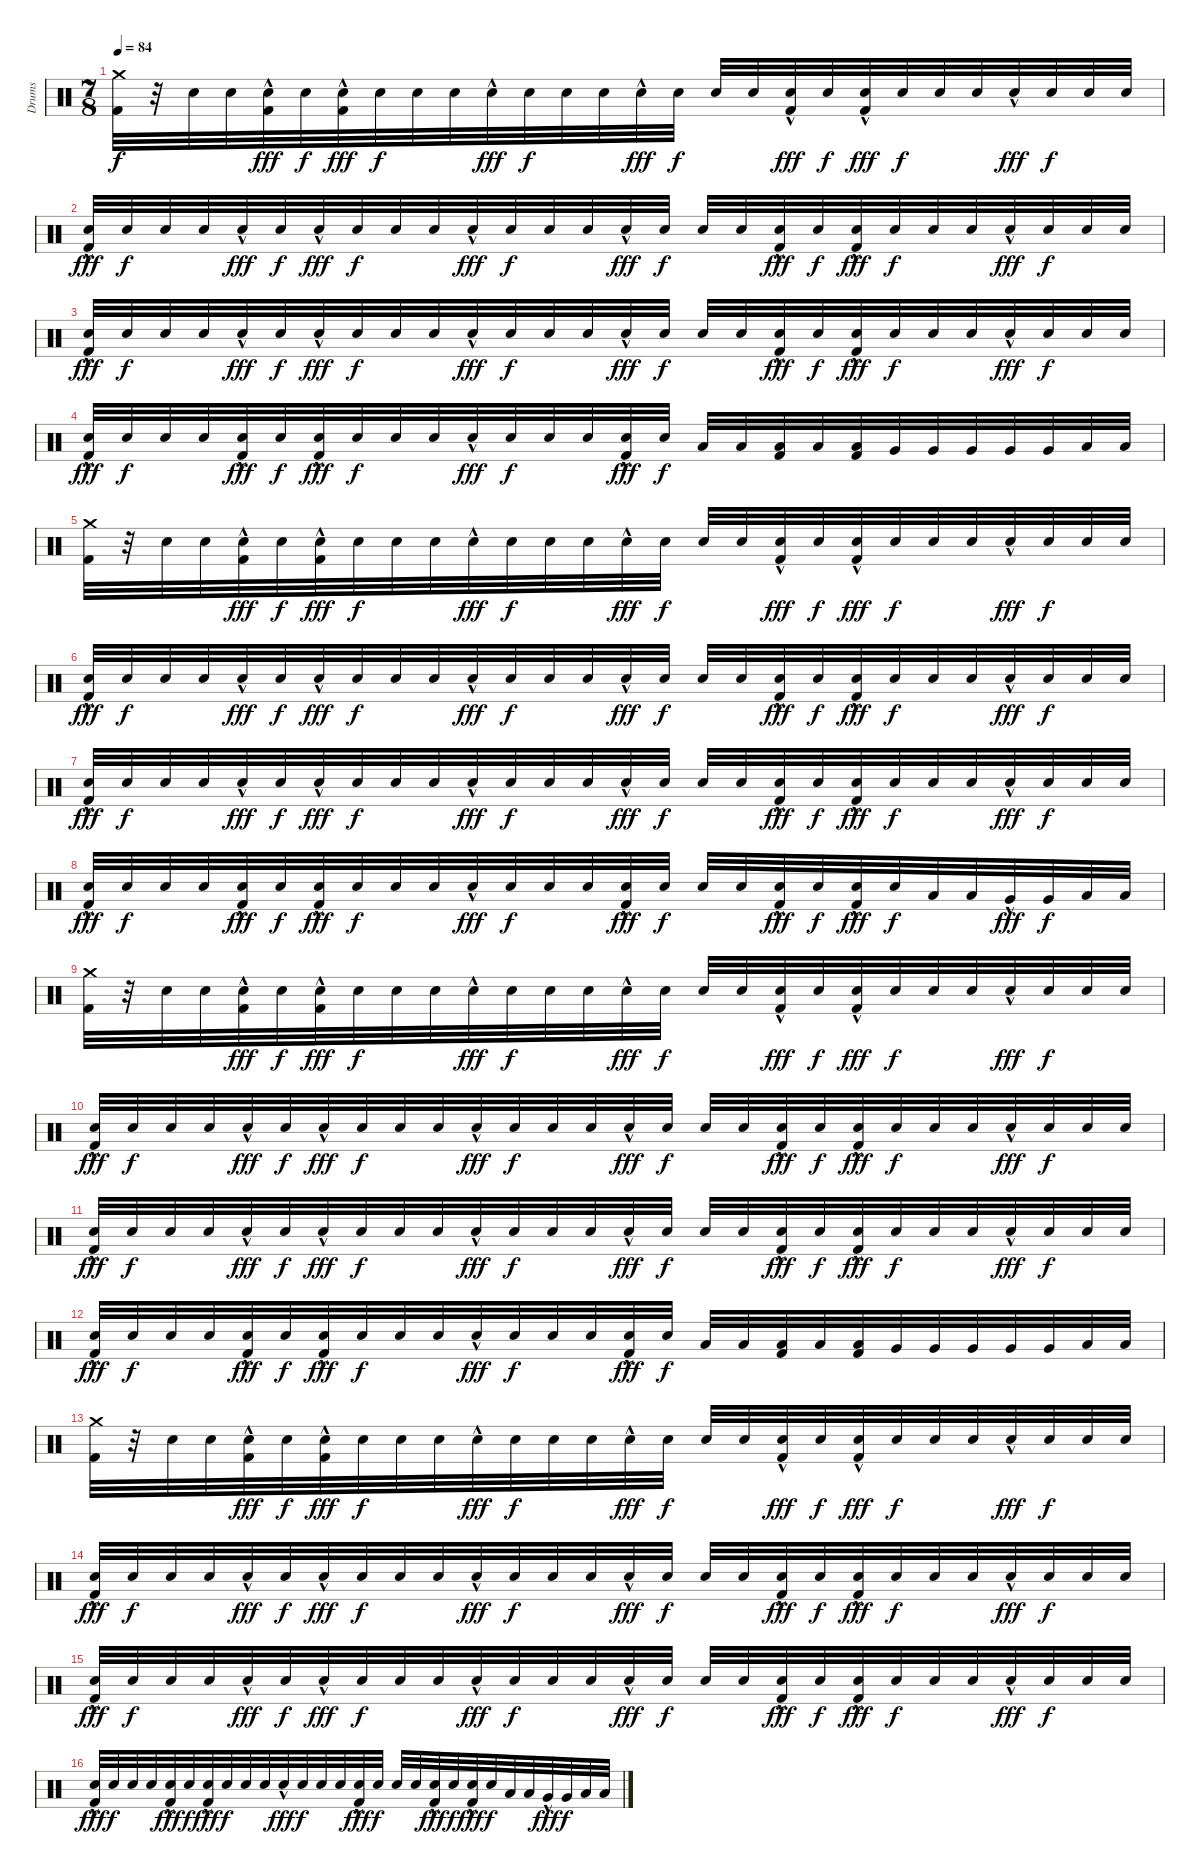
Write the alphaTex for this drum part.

\track ("Drums" "Drums") {instrument percussion}
\staff {score}
\articulation defaults
\ts (7 8)
\tempo 84
\clef neutral
\ks c
("Crash medium (hit)" "Kick (hit) 2").32{dy f} r.32 "Electric Snare (hit)".32 "Electric Snare (hit)".32 ("Electric Snare (hit)"{hac} "Kick (hit) 2").32{dy fff} "Electric Snare (hit)".32{dy f} ("Electric Snare (hit)"{hac} "Kick (hit) 2").32{dy fff} "Electric Snare (hit)".32{dy f} "Electric Snare (hit)".32 "Electric Snare (hit)".32 "Electric Snare (hit)"{hac}.32{dy fff} "Electric Snare (hit)".32{dy f} "Electric Snare (hit)".32 "Electric Snare (hit)".32 "Electric Snare (hit)"{hac}.32{dy fff} "Electric Snare (hit)".32{dy f} "Electric Snare (hit)".32 "Electric Snare (hit)".32 ("Electric Snare (hit)"{hac} "Kick (hit) 2").32{dy fff} "Electric Snare (hit)".32{dy f} ("Electric Snare (hit)"{hac} "Kick (hit) 2").32{dy fff} "Electric Snare (hit)".32{dy f} "Electric Snare (hit)".32 "Electric Snare (hit)".32 "Electric Snare (hit)"{hac}.32{dy fff} "Electric Snare (hit)".32{dy f} "Electric Snare (hit)".32 "Electric Snare (hit)".32 |
("Electric Snare (hit)"{hac} "Kick (hit) 2").32{dy fff} "Electric Snare (hit)".32{dy f} "Electric Snare (hit)".32 "Electric Snare (hit)".32 "Electric Snare (hit)"{hac}.32{dy fff} "Electric Snare (hit)".32{dy f} "Electric Snare (hit)"{hac}.32{dy fff} "Electric Snare (hit)".32{dy f} "Electric Snare (hit)".32 "Electric Snare (hit)".32 "Electric Snare (hit)"{hac}.32{dy fff} "Electric Snare (hit)".32{dy f} "Electric Snare (hit)".32 "Electric Snare (hit)".32 "Electric Snare (hit)"{hac}.32{dy fff} "Electric Snare (hit)".32{dy f} "Electric Snare (hit)".32 "Electric Snare (hit)".32 ("Electric Snare (hit)"{hac} "Kick (hit) 2").32{dy fff} "Electric Snare (hit)".32{dy f} ("Electric Snare (hit)"{hac} "Kick (hit) 2").32{dy fff} "Electric Snare (hit)".32{dy f} "Electric Snare (hit)".32 "Electric Snare (hit)".32 "Electric Snare (hit)"{hac}.32{dy fff} "Electric Snare (hit)".32{dy f} "Electric Snare (hit)".32 "Electric Snare (hit)".32 |
("Electric Snare (hit)"{hac} "Kick (hit) 2").32{dy fff} "Electric Snare (hit)".32{dy f} "Electric Snare (hit)".32 "Electric Snare (hit)".32 "Electric Snare (hit)"{hac}.32{dy fff} "Electric Snare (hit)".32{dy f} "Electric Snare (hit)"{hac}.32{dy fff} "Electric Snare (hit)".32{dy f} "Electric Snare (hit)".32 "Electric Snare (hit)".32 "Electric Snare (hit)"{hac}.32{dy fff} "Electric Snare (hit)".32{dy f} "Electric Snare (hit)".32 "Electric Snare (hit)".32 "Electric Snare (hit)"{hac}.32{dy fff} "Electric Snare (hit)".32{dy f} "Electric Snare (hit)".32 "Electric Snare (hit)".32 ("Electric Snare (hit)"{hac} "Kick (hit) 2").32{dy fff} "Electric Snare (hit)".32{dy f} ("Electric Snare (hit)"{hac} "Kick (hit) 2").32{dy fff} "Electric Snare (hit)".32{dy f} "Electric Snare (hit)".32 "Electric Snare (hit)".32 "Electric Snare (hit)"{hac}.32{dy fff} "Electric Snare (hit)".32{dy f} "Electric Snare (hit)".32 "Electric Snare (hit)".32 |
("Electric Snare (hit)"{hac} "Kick (hit) 2").32{dy fff} "Electric Snare (hit)".32{dy f} "Electric Snare (hit)".32 "Electric Snare (hit)".32 ("Electric Snare (hit)"{hac} "Kick (hit) 2").32{dy fff} "Electric Snare (hit)".32{dy f} ("Electric Snare (hit)"{hac} "Kick (hit) 2").32{dy fff} "Electric Snare (hit)".32{dy f} "Electric Snare (hit)".32 "Electric Snare (hit)".32 "Electric Snare (hit)"{hac}.32{dy fff} "Electric Snare (hit)".32{dy f} "Electric Snare (hit)".32 "Electric Snare (hit)".32 ("Electric Snare (hit)"{hac} "Kick (hit) 2").32{dy fff} "Electric Snare (hit)".32{dy f} "Low Tom (hit)".32 "Low Tom (hit)".32 ("Low Tom (hit)" "Kick (hit) 2").32 "Low Tom (hit)".32 ("Low Tom (hit)" "Kick (hit) 2").32 "Very Low Tom (hit)".32 "Very Low Tom (hit)".32 "Very Low Tom (hit)".32 "Very Low Tom (hit)".32 "Very Low Tom (hit)".32 "Low Floor Tom (hit)".32 "Low Floor Tom (hit)".32 |
("Crash medium (hit)" "Kick (hit) 2").32 r.32 "Electric Snare (hit)".32 "Electric Snare (hit)".32 ("Electric Snare (hit)"{hac} "Kick (hit) 2").32{dy fff} "Electric Snare (hit)".32{dy f} ("Electric Snare (hit)"{hac} "Kick (hit) 2").32{dy fff} "Electric Snare (hit)".32{dy f} "Electric Snare (hit)".32 "Electric Snare (hit)".32 "Electric Snare (hit)"{hac}.32{dy fff} "Electric Snare (hit)".32{dy f} "Electric Snare (hit)".32 "Electric Snare (hit)".32 "Electric Snare (hit)"{hac}.32{dy fff} "Electric Snare (hit)".32{dy f} "Electric Snare (hit)".32 "Electric Snare (hit)".32 ("Electric Snare (hit)"{hac} "Kick (hit) 2").32{dy fff} "Electric Snare (hit)".32{dy f} ("Electric Snare (hit)"{hac} "Kick (hit) 2").32{dy fff} "Electric Snare (hit)".32{dy f} "Electric Snare (hit)".32 "Electric Snare (hit)".32 "Electric Snare (hit)"{hac}.32{dy fff} "Electric Snare (hit)".32{dy f} "Electric Snare (hit)".32 "Electric Snare (hit)".32 |
("Electric Snare (hit)"{hac} "Kick (hit) 2").32{dy fff} "Electric Snare (hit)".32{dy f} "Electric Snare (hit)".32 "Electric Snare (hit)".32 "Electric Snare (hit)"{hac}.32{dy fff} "Electric Snare (hit)".32{dy f} "Electric Snare (hit)"{hac}.32{dy fff} "Electric Snare (hit)".32{dy f} "Electric Snare (hit)".32 "Electric Snare (hit)".32 "Electric Snare (hit)"{hac}.32{dy fff} "Electric Snare (hit)".32{dy f} "Electric Snare (hit)".32 "Electric Snare (hit)".32 "Electric Snare (hit)"{hac}.32{dy fff} "Electric Snare (hit)".32{dy f} "Electric Snare (hit)".32 "Electric Snare (hit)".32 ("Electric Snare (hit)"{hac} "Kick (hit) 2").32{dy fff} "Electric Snare (hit)".32{dy f} ("Electric Snare (hit)"{hac} "Kick (hit) 2").32{dy fff} "Electric Snare (hit)".32{dy f} "Electric Snare (hit)".32 "Electric Snare (hit)".32 "Electric Snare (hit)"{hac}.32{dy fff} "Electric Snare (hit)".32{dy f} "Electric Snare (hit)".32 "Electric Snare (hit)".32 |
("Electric Snare (hit)"{hac} "Kick (hit) 2").32{dy fff} "Electric Snare (hit)".32{dy f} "Electric Snare (hit)".32 "Electric Snare (hit)".32 "Electric Snare (hit)"{hac}.32{dy fff} "Electric Snare (hit)".32{dy f} "Electric Snare (hit)"{hac}.32{dy fff} "Electric Snare (hit)".32{dy f} "Electric Snare (hit)".32 "Electric Snare (hit)".32 "Electric Snare (hit)"{hac}.32{dy fff} "Electric Snare (hit)".32{dy f} "Electric Snare (hit)".32 "Electric Snare (hit)".32 "Electric Snare (hit)"{hac}.32{dy fff} "Electric Snare (hit)".32{dy f} "Electric Snare (hit)".32 "Electric Snare (hit)".32 ("Electric Snare (hit)"{hac} "Kick (hit) 2").32{dy fff} "Electric Snare (hit)".32{dy f} ("Electric Snare (hit)"{hac} "Kick (hit) 2").32{dy fff} "Electric Snare (hit)".32{dy f} "Electric Snare (hit)".32 "Electric Snare (hit)".32 "Electric Snare (hit)"{hac}.32{dy fff} "Electric Snare (hit)".32{dy f} "Electric Snare (hit)".32 "Electric Snare (hit)".32 |
("Electric Snare (hit)"{hac} "Kick (hit) 2").32{dy fff} "Electric Snare (hit)".32{dy f} "Electric Snare (hit)".32 "Electric Snare (hit)".32 ("Electric Snare (hit)"{hac} "Kick (hit) 2").32{dy fff} "Electric Snare (hit)".32{dy f} ("Electric Snare (hit)"{hac} "Kick (hit) 2").32{dy fff} "Electric Snare (hit)".32{dy f} "Electric Snare (hit)".32 "Electric Snare (hit)".32 "Electric Snare (hit)"{hac}.32{dy fff} "Electric Snare (hit)".32{dy f} "Electric Snare (hit)".32 "Electric Snare (hit)".32 ("Electric Snare (hit)"{hac} "Kick (hit) 2").32{dy fff} "Electric Snare (hit)".32{dy f} "Electric Snare (hit)".32 "Electric Snare (hit)".32 ("Electric Snare (hit)"{hac} "Kick (hit) 2").32{dy fff} "Electric Snare (hit)".32{dy f} ("Electric Snare (hit)"{hac} "Kick (hit) 2").32{dy fff} "Electric Snare (hit)".32{dy f} "Low Tom (hit)".32 "Low Tom (hit)".32 "Very Low Tom (hit)"{hac}.32{dy fff} "Very Low Tom (hit)".32{dy f} "Low Floor Tom (hit)".32 "Low Floor Tom (hit)".32 |
("Crash medium (hit)" "Kick (hit) 2").32 r.32 "Electric Snare (hit)".32 "Electric Snare (hit)".32 ("Electric Snare (hit)"{hac} "Kick (hit) 2").32{dy fff} "Electric Snare (hit)".32{dy f} ("Electric Snare (hit)"{hac} "Kick (hit) 2").32{dy fff} "Electric Snare (hit)".32{dy f} "Electric Snare (hit)".32 "Electric Snare (hit)".32 "Electric Snare (hit)"{hac}.32{dy fff} "Electric Snare (hit)".32{dy f} "Electric Snare (hit)".32 "Electric Snare (hit)".32 "Electric Snare (hit)"{hac}.32{dy fff} "Electric Snare (hit)".32{dy f} "Electric Snare (hit)".32 "Electric Snare (hit)".32 ("Electric Snare (hit)"{hac} "Kick (hit) 2").32{dy fff} "Electric Snare (hit)".32{dy f} ("Electric Snare (hit)"{hac} "Kick (hit) 2").32{dy fff} "Electric Snare (hit)".32{dy f} "Electric Snare (hit)".32 "Electric Snare (hit)".32 "Electric Snare (hit)"{hac}.32{dy fff} "Electric Snare (hit)".32{dy f} "Electric Snare (hit)".32 "Electric Snare (hit)".32 |
("Electric Snare (hit)"{hac} "Kick (hit) 2").32{dy fff} "Electric Snare (hit)".32{dy f} "Electric Snare (hit)".32 "Electric Snare (hit)".32 "Electric Snare (hit)"{hac}.32{dy fff} "Electric Snare (hit)".32{dy f} "Electric Snare (hit)"{hac}.32{dy fff} "Electric Snare (hit)".32{dy f} "Electric Snare (hit)".32 "Electric Snare (hit)".32 "Electric Snare (hit)"{hac}.32{dy fff} "Electric Snare (hit)".32{dy f} "Electric Snare (hit)".32 "Electric Snare (hit)".32 "Electric Snare (hit)"{hac}.32{dy fff} "Electric Snare (hit)".32{dy f} "Electric Snare (hit)".32 "Electric Snare (hit)".32 ("Electric Snare (hit)"{hac} "Kick (hit) 2").32{dy fff} "Electric Snare (hit)".32{dy f} ("Electric Snare (hit)"{hac} "Kick (hit) 2").32{dy fff} "Electric Snare (hit)".32{dy f} "Electric Snare (hit)".32 "Electric Snare (hit)".32 "Electric Snare (hit)"{hac}.32{dy fff} "Electric Snare (hit)".32{dy f} "Electric Snare (hit)".32 "Electric Snare (hit)".32 |
("Electric Snare (hit)"{hac} "Kick (hit) 2").32{dy fff} "Electric Snare (hit)".32{dy f} "Electric Snare (hit)".32 "Electric Snare (hit)".32 "Electric Snare (hit)"{hac}.32{dy fff} "Electric Snare (hit)".32{dy f} "Electric Snare (hit)"{hac}.32{dy fff} "Electric Snare (hit)".32{dy f} "Electric Snare (hit)".32 "Electric Snare (hit)".32 "Electric Snare (hit)"{hac}.32{dy fff} "Electric Snare (hit)".32{dy f} "Electric Snare (hit)".32 "Electric Snare (hit)".32 "Electric Snare (hit)"{hac}.32{dy fff} "Electric Snare (hit)".32{dy f} "Electric Snare (hit)".32 "Electric Snare (hit)".32 ("Electric Snare (hit)"{hac} "Kick (hit) 2").32{dy fff} "Electric Snare (hit)".32{dy f} ("Electric Snare (hit)"{hac} "Kick (hit) 2").32{dy fff} "Electric Snare (hit)".32{dy f} "Electric Snare (hit)".32 "Electric Snare (hit)".32 "Electric Snare (hit)"{hac}.32{dy fff} "Electric Snare (hit)".32{dy f} "Electric Snare (hit)".32 "Electric Snare (hit)".32 |
("Electric Snare (hit)"{hac} "Kick (hit) 2").32{dy fff} "Electric Snare (hit)".32{dy f} "Electric Snare (hit)".32 "Electric Snare (hit)".32 ("Electric Snare (hit)"{hac} "Kick (hit) 2").32{dy fff} "Electric Snare (hit)".32{dy f} ("Electric Snare (hit)"{hac} "Kick (hit) 2").32{dy fff} "Electric Snare (hit)".32{dy f} "Electric Snare (hit)".32 "Electric Snare (hit)".32 "Electric Snare (hit)"{hac}.32{dy fff} "Electric Snare (hit)".32{dy f} "Electric Snare (hit)".32 "Electric Snare (hit)".32 ("Electric Snare (hit)"{hac} "Kick (hit) 2").32{dy fff} "Electric Snare (hit)".32{dy f} "Low Tom (hit)".32 "Low Tom (hit)".32 ("Low Tom (hit)" "Kick (hit) 2").32 "Low Tom (hit)".32 ("Low Tom (hit)" "Kick (hit) 2").32 "Very Low Tom (hit)".32 "Very Low Tom (hit)".32 "Very Low Tom (hit)".32 "Very Low Tom (hit)".32 "Very Low Tom (hit)".32 "Low Floor Tom (hit)".32 "Low Floor Tom (hit)".32 |
("Crash medium (hit)" "Kick (hit) 2").32 r.32 "Electric Snare (hit)".32 "Electric Snare (hit)".32 ("Electric Snare (hit)"{hac} "Kick (hit) 2").32{dy fff} "Electric Snare (hit)".32{dy f} ("Electric Snare (hit)"{hac} "Kick (hit) 2").32{dy fff} "Electric Snare (hit)".32{dy f} "Electric Snare (hit)".32 "Electric Snare (hit)".32 "Electric Snare (hit)"{hac}.32{dy fff} "Electric Snare (hit)".32{dy f} "Electric Snare (hit)".32 "Electric Snare (hit)".32 "Electric Snare (hit)"{hac}.32{dy fff} "Electric Snare (hit)".32{dy f} "Electric Snare (hit)".32 "Electric Snare (hit)".32 ("Electric Snare (hit)"{hac} "Kick (hit) 2").32{dy fff} "Electric Snare (hit)".32{dy f} ("Electric Snare (hit)"{hac} "Kick (hit) 2").32{dy fff} "Electric Snare (hit)".32{dy f} "Electric Snare (hit)".32 "Electric Snare (hit)".32 "Electric Snare (hit)"{hac}.32{dy fff} "Electric Snare (hit)".32{dy f} "Electric Snare (hit)".32 "Electric Snare (hit)".32 |
("Electric Snare (hit)"{hac} "Kick (hit) 2").32{dy fff} "Electric Snare (hit)".32{dy f} "Electric Snare (hit)".32 "Electric Snare (hit)".32 "Electric Snare (hit)"{hac}.32{dy fff} "Electric Snare (hit)".32{dy f} "Electric Snare (hit)"{hac}.32{dy fff} "Electric Snare (hit)".32{dy f} "Electric Snare (hit)".32 "Electric Snare (hit)".32 "Electric Snare (hit)"{hac}.32{dy fff} "Electric Snare (hit)".32{dy f} "Electric Snare (hit)".32 "Electric Snare (hit)".32 "Electric Snare (hit)"{hac}.32{dy fff} "Electric Snare (hit)".32{dy f} "Electric Snare (hit)".32 "Electric Snare (hit)".32 ("Electric Snare (hit)"{hac} "Kick (hit) 2").32{dy fff} "Electric Snare (hit)".32{dy f} ("Electric Snare (hit)"{hac} "Kick (hit) 2").32{dy fff} "Electric Snare (hit)".32{dy f} "Electric Snare (hit)".32 "Electric Snare (hit)".32 "Electric Snare (hit)"{hac}.32{dy fff} "Electric Snare (hit)".32{dy f} "Electric Snare (hit)".32 "Electric Snare (hit)".32 |
("Electric Snare (hit)"{hac} "Kick (hit) 2").32{dy fff} "Electric Snare (hit)".32{dy f} "Electric Snare (hit)".32 "Electric Snare (hit)".32 "Electric Snare (hit)"{hac}.32{dy fff} "Electric Snare (hit)".32{dy f} "Electric Snare (hit)"{hac}.32{dy fff} "Electric Snare (hit)".32{dy f} "Electric Snare (hit)".32 "Electric Snare (hit)".32 "Electric Snare (hit)"{hac}.32{dy fff} "Electric Snare (hit)".32{dy f} "Electric Snare (hit)".32 "Electric Snare (hit)".32 "Electric Snare (hit)"{hac}.32{dy fff} "Electric Snare (hit)".32{dy f} "Electric Snare (hit)".32 "Electric Snare (hit)".32 ("Electric Snare (hit)"{hac} "Kick (hit) 2").32{dy fff} "Electric Snare (hit)".32{dy f} ("Electric Snare (hit)"{hac} "Kick (hit) 2").32{dy fff} "Electric Snare (hit)".32{dy f} "Electric Snare (hit)".32 "Electric Snare (hit)".32 "Electric Snare (hit)"{hac}.32{dy fff} "Electric Snare (hit)".32{dy f} "Electric Snare (hit)".32 "Electric Snare (hit)".32 |
("Electric Snare (hit)"{hac} "Kick (hit) 2").32{dy fff} "Electric Snare (hit)".32{dy f} "Electric Snare (hit)".32 "Electric Snare (hit)".32 ("Electric Snare (hit)"{hac} "Kick (hit) 2").32{dy fff} "Electric Snare (hit)".32{dy f} ("Electric Snare (hit)"{hac} "Kick (hit) 2").32{dy fff} "Electric Snare (hit)".32{dy f} "Electric Snare (hit)".32 "Electric Snare (hit)".32 "Electric Snare (hit)"{hac}.32{dy fff} "Electric Snare (hit)".32{dy f} "Electric Snare (hit)".32 "Electric Snare (hit)".32 ("Electric Snare (hit)"{hac} "Kick (hit) 2").32{dy fff} "Electric Snare (hit)".32{dy f} "Electric Snare (hit)".32 "Electric Snare (hit)".32 ("Electric Snare (hit)"{hac} "Kick (hit) 2").32{dy fff} "Electric Snare (hit)".32{dy f} ("Electric Snare (hit)"{hac} "Kick (hit) 2").32{dy fff} "Electric Snare (hit)".32{dy f} "Low Tom (hit)".32 "Low Tom (hit)".32 "Very Low Tom (hit)"{hac}.32{dy fff} "Very Low Tom (hit)".32{dy f} "Low Floor Tom (hit)".32 "Low Floor Tom (hit)".32
